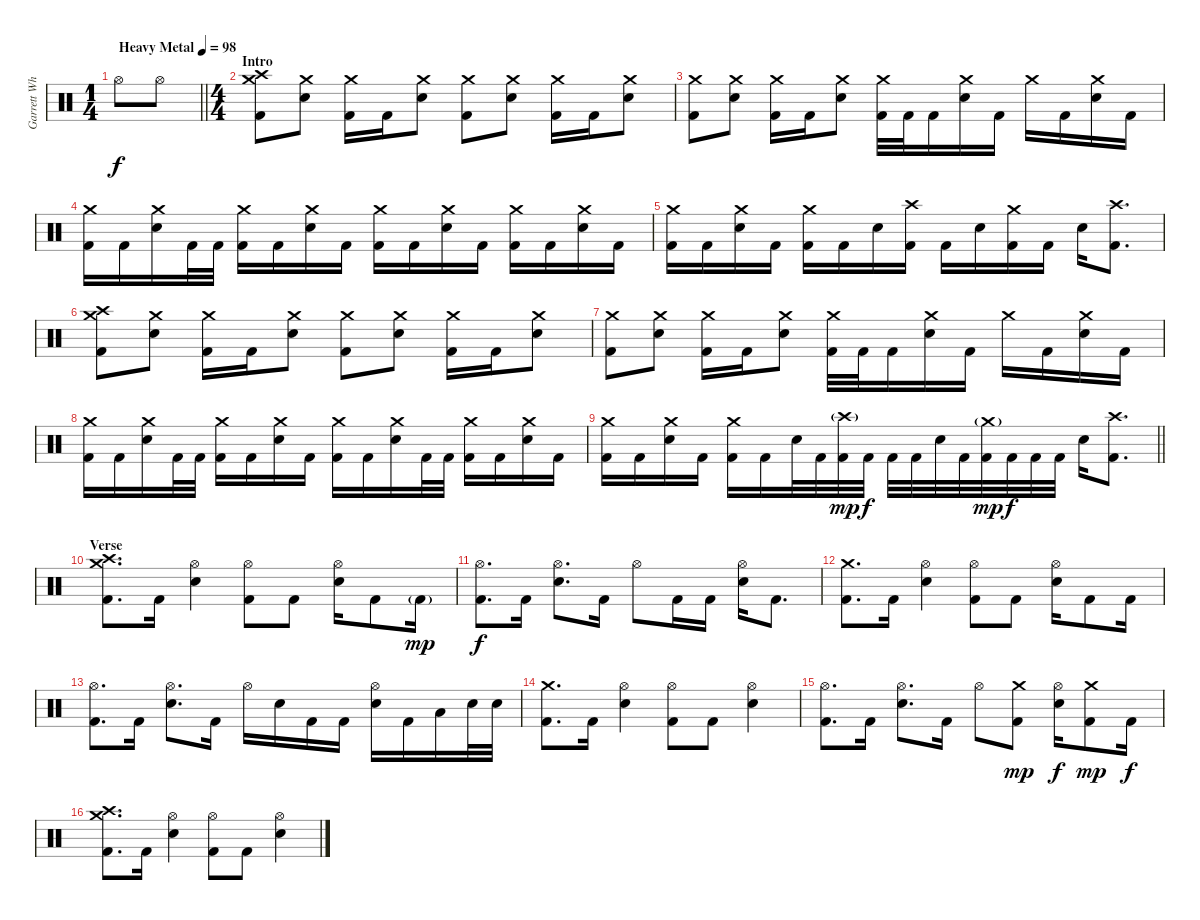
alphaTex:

\track ("Garrett Whitlock" "Garrett Wh") {instrument percussion}
\staff {score}
\articulation defaults
\ts (1 4)
\tempo (98 "Heavy Metal")
\clef neutral
\barLineRight lightlight
\ks c "Hi-Hat (open)".8{dy f} "Hi-Hat (open)".8
|
\ts (4 4)
\section ("" "Intro")
("Crash high (hit)" "Crash medium (hit)" "Kick (hit) 2").8 ("Crash medium (hit)" "Electric Snare (hit)").8 ("Crash medium (hit)" "Kick (hit) 2").16 "Kick (hit) 2".16 ("Crash medium (hit)" "Electric Snare (hit)").8 ("Crash medium (hit)" "Kick (hit) 2").8 ("Crash medium (hit)" "Electric Snare (hit)").8 ("Crash medium (hit)" "Kick (hit) 2").16 "Kick (hit) 2".16 ("Crash medium (hit)" "Electric Snare (hit)").8 |
("Crash medium (hit)" "Kick (hit) 2").8 ("Crash medium (hit)" "Electric Snare (hit)").8 ("Crash medium (hit)" "Kick (hit) 2").16 "Kick (hit) 2".16 ("Crash medium (hit)" "Electric Snare (hit)").8 ("Crash medium (hit)" "Kick (hit) 2").32 "Kick (hit) 2".32 "Kick (hit) 2".16 ("Crash medium (hit)" "Electric Snare (hit)").16 "Kick (hit) 2".16 "Crash medium (hit)".16 "Kick (hit) 2".16 ("Crash medium (hit)" "Electric Snare (hit)").16 "Kick (hit) 2".16 |
("Crash medium (hit)" "Kick (hit) 2").16 "Kick (hit) 2".16 ("Crash medium (hit)" "Electric Snare (hit)").16 "Kick (hit) 2".32 "Kick (hit) 2".32 ("Crash medium (hit)" "Kick (hit) 2").16 "Kick (hit) 2".16 ("Crash medium (hit)" "Electric Snare (hit)").16 "Kick (hit) 2".16 ("Crash medium (hit)" "Kick (hit) 2").16 "Kick (hit) 2".16 ("Crash medium (hit)" "Electric Snare (hit)").16 "Kick (hit) 2".16 ("Crash medium (hit)" "Kick (hit) 2").16 "Kick (hit) 2".16 ("Crash medium (hit)" "Electric Snare (hit)").16 "Kick (hit) 2".16 |
("Crash medium (hit)" "Kick (hit) 2").16 "Kick (hit) 2".16 ("Crash medium (hit)" "Electric Snare (hit)").16 "Kick (hit) 2".16 ("Crash medium (hit)" "Kick (hit) 2").16 "Kick (hit) 2".16 "Electric Snare (hit)".16 ("Crash high (hit)" "Kick (hit) 2").16 "Kick (hit) 2".16 "Electric Snare (hit)".16 ("Crash medium (hit)" "Kick (hit) 2").16 "Kick (hit) 2".16 "Electric Snare (hit)".16 ("Crash high (hit)" "Kick (hit) 2").8{d} |
("Crash high (hit)" "Crash medium (hit)" "Kick (hit) 2").8 ("Crash medium (hit)" "Electric Snare (hit)").8 ("Crash medium (hit)" "Kick (hit) 2").16 "Kick (hit) 2".16 ("Crash medium (hit)" "Electric Snare (hit)").8 ("Crash medium (hit)" "Kick (hit) 2").8 ("Crash medium (hit)" "Electric Snare (hit)").8 ("Crash medium (hit)" "Kick (hit) 2").16 "Kick (hit) 2".16 ("Crash medium (hit)" "Electric Snare (hit)").8 |
("Crash medium (hit)" "Kick (hit) 2").8 ("Crash medium (hit)" "Electric Snare (hit)").8 ("Crash medium (hit)" "Kick (hit) 2").16 "Kick (hit) 2".16 ("Crash medium (hit)" "Electric Snare (hit)").8 ("Crash medium (hit)" "Kick (hit) 2").32 "Kick (hit) 2".32 "Kick (hit) 2".16 ("Crash medium (hit)" "Electric Snare (hit)").16 "Kick (hit) 2".16 "Crash medium (hit)".16 "Kick (hit) 2".16 ("Crash medium (hit)" "Electric Snare (hit)").16 "Kick (hit) 2".16 |
("Crash medium (hit)" "Kick (hit) 2").16 "Kick (hit) 2".16 ("Crash medium (hit)" "Electric Snare (hit)").16 "Kick (hit) 2".32 "Kick (hit) 2".32 ("Crash medium (hit)" "Kick (hit) 2").16 "Kick (hit) 2".16 ("Crash medium (hit)" "Electric Snare (hit)").16 "Kick (hit) 2".16 ("Crash medium (hit)" "Kick (hit) 2").16 "Kick (hit) 2".16 ("Crash medium (hit)" "Electric Snare (hit)").16 "Kick (hit) 2".32 "Kick (hit) 2".32 ("Crash medium (hit)" "Kick (hit) 2").16 "Kick (hit) 2".16 ("Crash medium (hit)" "Electric Snare (hit)").16 "Kick (hit) 2".16 |
\barLineRight lightlight
("Crash medium (hit)" "Kick (hit) 2").16 "Kick (hit) 2".16 ("Crash medium (hit)" "Electric Snare (hit)").16 "Kick (hit) 2".16 ("Crash medium (hit)" "Kick (hit) 2").16 "Kick (hit) 2".16 "Electric Snare (hit)".32 "Kick (hit) 2".32 ("Crash high (hit)"{g} "Kick (hit) 2").32{dy mp} "Kick (hit) 2".32{dy f} "Kick (hit) 2".32 "Kick (hit) 2".32 "Electric Snare (hit)".32 "Kick (hit) 2".32 ("Crash medium (hit)"{g} "Kick (hit) 2").32{dy mp} "Kick (hit) 2".32{dy f} "Kick (hit) 2".32 "Kick (hit) 2".32 "Electric Snare (hit)".16 ("Crash high (hit)" "Kick (hit) 2").8{d} |
\section ("" "Verse")
("Crash high (hit)" "Crash medium (hit)" "Kick (hit) 2").8{d} "Kick (hit) 2".16 ("Hi-Hat (open)" "Electric Snare (hit)").4 ("Hi-Hat (open)" "Kick (hit) 2").8 "Kick (hit) 2".8 ("Hi-Hat (open)" "Electric Snare (hit)").16 "Kick (hit) 2".8 "Kick (hit) 2"{g}.16{dy mp} |
("Hi-Hat (open)" "Kick (hit) 2").8{d dy f} "Kick (hit) 2".16 ("Hi-Hat (open)" "Electric Snare (hit)").8{d} "Kick (hit) 2".16 "Hi-Hat (open)".8 "Kick (hit) 2".16 "Kick (hit) 2".16 ("Hi-Hat (open)" "Electric Snare (hit)").16 "Kick (hit) 2".8{d} |
("Crash medium (hit)" "Kick (hit) 2").8{d} "Kick (hit) 2".16 ("Hi-Hat (open)" "Electric Snare (hit)").4 ("Hi-Hat (open)" "Kick (hit) 2").8 "Kick (hit) 2".8 ("Hi-Hat (open)" "Electric Snare (hit)").16 "Kick (hit) 2".8 "Kick (hit) 2".16 |
("Hi-Hat (open)" "Kick (hit) 2").8{d} "Kick (hit) 2".16 ("Hi-Hat (open)" "Electric Snare (hit)").8{d} "Kick (hit) 2".16 "Hi-Hat (open)".16 "Electric Snare (hit)".16 "Kick (hit) 2".16 "Kick (hit) 2".16 ("Hi-Hat (open)" "Electric Snare (hit)").16 "Kick (hit) 2".16 "Low Tom (hit)".16 "Electric Snare (hit)".32 "Electric Snare (hit)".32 |
("Crash medium (hit)" "Kick (hit) 2").8{d} "Kick (hit) 2".16 ("Hi-Hat (open)" "Electric Snare (hit)").4 ("Hi-Hat (open)" "Kick (hit) 2").8 "Kick (hit) 2".8 ("Hi-Hat (open)" "Electric Snare (hit)").4 |
("Hi-Hat (open)" "Kick (hit) 2").8{d} "Kick (hit) 2".16 ("Hi-Hat (open)" "Electric Snare (hit)").8{d} "Kick (hit) 2".16 "Hi-Hat (open)".8 ("Crash medium (hit)" "Kick (hit) 2").8{dy mp} ("Hi-Hat (open)" "Electric Snare (hit)").16{dy f} ("Crash medium (hit)" "Kick (hit) 2").8{dy mp} "Kick (hit) 2".16{dy f} |
("Crash high (hit)" "Crash medium (hit)" "Kick (hit) 2").8{d} "Kick (hit) 2".16 ("Hi-Hat (open)" "Electric Snare (hit)").4 ("Hi-Hat (open)" "Kick (hit) 2").8 "Kick (hit) 2".8 ("Hi-Hat (open)" "Electric Snare (hit)").4
